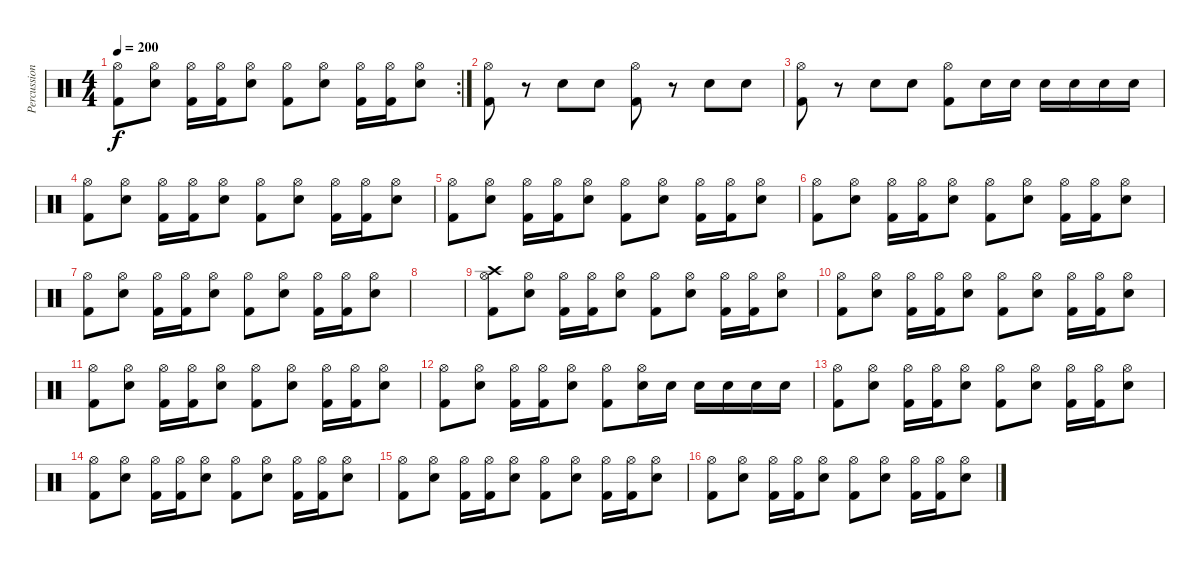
\track ("Percussions" "Percussion") {instrument percussion}
\staff {score}
\articulation defaults
\rc 2
\ts (4 4)
\tempo 200
\clef neutral
\ks c
("Hi-Hat (open)" "Kick (hit) 2").8{dy f} ("Hi-Hat (open)" "Electric Snare (hit)").8 ("Hi-Hat (open)" "Kick (hit) 2").16 ("Hi-Hat (open)" "Kick (hit) 2").16 ("Hi-Hat (open)" "Electric Snare (hit)").8 ("Hi-Hat (open)" "Kick (hit) 2").8 ("Hi-Hat (open)" "Electric Snare (hit)").8 ("Hi-Hat (open)" "Kick (hit) 2").16 ("Hi-Hat (open)" "Kick (hit) 2").16 ("Hi-Hat (open)" "Electric Snare (hit)").8 |
("Hi-Hat (open)" "Kick (hit) 2").8 r.8 "Electric Snare (hit)".8 "Electric Snare (hit)".8 ("Hi-Hat (open)" "Kick (hit) 2").8 r.8 "Electric Snare (hit)".8 "Electric Snare (hit)".8 |
("Hi-Hat (open)" "Kick (hit) 2").8 r.8 "Electric Snare (hit)".8 "Electric Snare (hit)".8 ("Hi-Hat (open)" "Kick (hit) 2").8 "Electric Snare (hit)".16 "Electric Snare (hit)".16 "Electric Snare (hit)".16 "Electric Snare (hit)".16 "Electric Snare (hit)".16 "Electric Snare (hit)".16 |
("Hi-Hat (open)" "Kick (hit) 2").8 ("Hi-Hat (open)" "Electric Snare (hit)").8 ("Hi-Hat (open)" "Kick (hit) 2").16 ("Hi-Hat (open)" "Kick (hit) 2").16 ("Hi-Hat (open)" "Electric Snare (hit)").8 ("Hi-Hat (open)" "Kick (hit) 2").8 ("Hi-Hat (open)" "Electric Snare (hit)").8 ("Hi-Hat (open)" "Kick (hit) 2").16 ("Hi-Hat (open)" "Kick (hit) 2").16 ("Hi-Hat (open)" "Electric Snare (hit)").8 |
("Hi-Hat (open)" "Kick (hit) 2").8 ("Hi-Hat (open)" "Electric Snare (hit)").8 ("Hi-Hat (open)" "Kick (hit) 2").16 ("Hi-Hat (open)" "Kick (hit) 2").16 ("Hi-Hat (open)" "Electric Snare (hit)").8 ("Hi-Hat (open)" "Kick (hit) 2").8 ("Hi-Hat (open)" "Electric Snare (hit)").8 ("Hi-Hat (open)" "Kick (hit) 2").16 ("Hi-Hat (open)" "Kick (hit) 2").16 ("Hi-Hat (open)" "Electric Snare (hit)").8 |
("Hi-Hat (open)" "Kick (hit) 2").8 ("Hi-Hat (open)" "Electric Snare (hit)").8 ("Hi-Hat (open)" "Kick (hit) 2").16 ("Hi-Hat (open)" "Kick (hit) 2").16 ("Hi-Hat (open)" "Electric Snare (hit)").8 ("Hi-Hat (open)" "Kick (hit) 2").8 ("Hi-Hat (open)" "Electric Snare (hit)").8 ("Hi-Hat (open)" "Kick (hit) 2").16 ("Hi-Hat (open)" "Kick (hit) 2").16 ("Hi-Hat (open)" "Electric Snare (hit)").8 |
("Hi-Hat (open)" "Kick (hit) 2").8 ("Hi-Hat (open)" "Electric Snare (hit)").8 ("Hi-Hat (open)" "Kick (hit) 2").16 ("Hi-Hat (open)" "Kick (hit) 2").16 ("Hi-Hat (open)" "Electric Snare (hit)").8 ("Hi-Hat (open)" "Kick (hit) 2").8 ("Hi-Hat (open)" "Electric Snare (hit)").8 ("Hi-Hat (open)" "Kick (hit) 2").16 ("Hi-Hat (open)" "Kick (hit) 2").16 ("Hi-Hat (open)" "Electric Snare (hit)").8 |
|
("Crash high (hit)" "Hi-Hat (open)" "Kick (hit) 2").8 ("Hi-Hat (open)" "Electric Snare (hit)").8 ("Hi-Hat (open)" "Kick (hit) 2").16 ("Hi-Hat (open)" "Kick (hit) 2").16 ("Hi-Hat (open)" "Electric Snare (hit)").8 ("Hi-Hat (open)" "Kick (hit) 2").8 ("Hi-Hat (open)" "Electric Snare (hit)").8 ("Hi-Hat (open)" "Kick (hit) 2").16 ("Hi-Hat (open)" "Kick (hit) 2").16 ("Hi-Hat (open)" "Electric Snare (hit)").8 |
("Hi-Hat (open)" "Kick (hit) 2").8 ("Hi-Hat (open)" "Electric Snare (hit)").8 ("Hi-Hat (open)" "Kick (hit) 2").16 ("Hi-Hat (open)" "Kick (hit) 2").16 ("Hi-Hat (open)" "Electric Snare (hit)").8 ("Hi-Hat (open)" "Kick (hit) 2").8 ("Hi-Hat (open)" "Electric Snare (hit)").8 ("Hi-Hat (open)" "Kick (hit) 2").16 ("Hi-Hat (open)" "Kick (hit) 2").16 ("Hi-Hat (open)" "Electric Snare (hit)").8 |
("Hi-Hat (open)" "Kick (hit) 2").8 ("Hi-Hat (open)" "Electric Snare (hit)").8 ("Hi-Hat (open)" "Kick (hit) 2").16 ("Hi-Hat (open)" "Kick (hit) 2").16 ("Hi-Hat (open)" "Electric Snare (hit)").8 ("Hi-Hat (open)" "Kick (hit) 2").8 ("Hi-Hat (open)" "Electric Snare (hit)").8 ("Hi-Hat (open)" "Kick (hit) 2").16 ("Hi-Hat (open)" "Kick (hit) 2").16 ("Hi-Hat (open)" "Electric Snare (hit)").8 |
("Hi-Hat (open)" "Kick (hit) 2").8 ("Hi-Hat (open)" "Electric Snare (hit)").8 ("Hi-Hat (open)" "Kick (hit) 2").16 ("Hi-Hat (open)" "Kick (hit) 2").16 ("Hi-Hat (open)" "Electric Snare (hit)").8 ("Hi-Hat (open)" "Kick (hit) 2").8 ("Hi-Hat (open)" "Electric Snare (hit)").16 "Electric Snare (hit)".16 "Electric Snare (hit)".16 "Electric Snare (hit)".16 "Electric Snare (hit)".16 "Electric Snare (hit)".16 |
("Hi-Hat (open)" "Kick (hit) 2").8 ("Hi-Hat (open)" "Electric Snare (hit)").8 ("Hi-Hat (open)" "Kick (hit) 2").16 ("Hi-Hat (open)" "Kick (hit) 2").16 ("Hi-Hat (open)" "Electric Snare (hit)").8 ("Hi-Hat (open)" "Kick (hit) 2").8 ("Hi-Hat (open)" "Electric Snare (hit)").8 ("Hi-Hat (open)" "Kick (hit) 2").16 ("Hi-Hat (open)" "Kick (hit) 2").16 ("Hi-Hat (open)" "Electric Snare (hit)").8 |
("Hi-Hat (open)" "Kick (hit) 2").8 ("Hi-Hat (open)" "Electric Snare (hit)").8 ("Hi-Hat (open)" "Kick (hit) 2").16 ("Hi-Hat (open)" "Kick (hit) 2").16 ("Hi-Hat (open)" "Electric Snare (hit)").8 ("Hi-Hat (open)" "Kick (hit) 2").8 ("Hi-Hat (open)" "Electric Snare (hit)").8 ("Hi-Hat (open)" "Kick (hit) 2").16 ("Hi-Hat (open)" "Kick (hit) 2").16 ("Hi-Hat (open)" "Electric Snare (hit)").8 |
("Hi-Hat (open)" "Kick (hit) 2").8 ("Hi-Hat (open)" "Electric Snare (hit)").8 ("Hi-Hat (open)" "Kick (hit) 2").16 ("Hi-Hat (open)" "Kick (hit) 2").16 ("Hi-Hat (open)" "Electric Snare (hit)").8 ("Hi-Hat (open)" "Kick (hit) 2").8 ("Hi-Hat (open)" "Electric Snare (hit)").8 ("Hi-Hat (open)" "Kick (hit) 2").16 ("Hi-Hat (open)" "Kick (hit) 2").16 ("Hi-Hat (open)" "Electric Snare (hit)").8 |
("Hi-Hat (open)" "Kick (hit) 2").8 ("Hi-Hat (open)" "Electric Snare (hit)").8 ("Hi-Hat (open)" "Kick (hit) 2").16 ("Hi-Hat (open)" "Kick (hit) 2").16 ("Hi-Hat (open)" "Electric Snare (hit)").8 ("Hi-Hat (open)" "Kick (hit) 2").8 ("Hi-Hat (open)" "Electric Snare (hit)").8 ("Hi-Hat (open)" "Kick (hit) 2").16 ("Hi-Hat (open)" "Kick (hit) 2").16 ("Hi-Hat (open)" "Electric Snare (hit)").8
